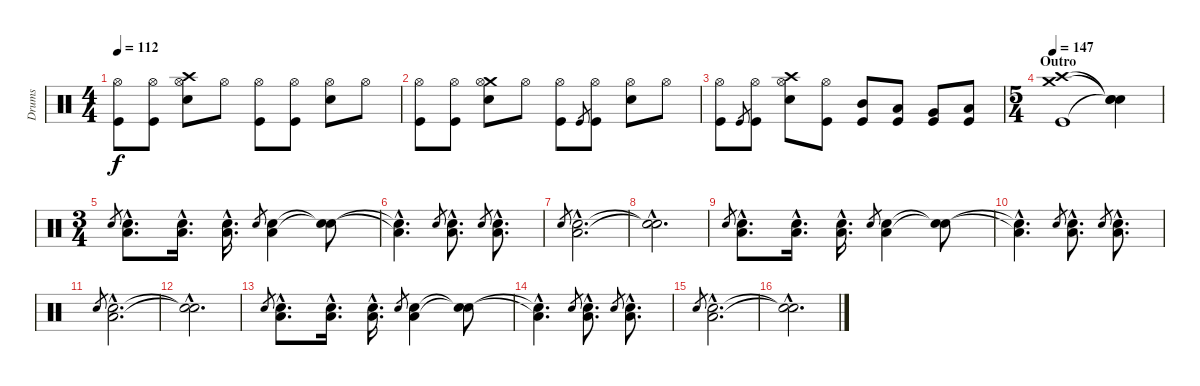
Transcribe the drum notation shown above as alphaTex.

\track ("Drums" "Drums") {instrument percussion}
\staff {score}
\articulation defaults
\ts (4 4)
\tempo 112
\clef neutral
\ks c
("Hi-Hat (open)" "Kick (hit)").8{dy f} ("Hi-Hat (open)" "Kick (hit)").8 ("Crash high (hit)" "Hi-Hat (open)" "Snare (hit) 2").8 "Hi-Hat (open)".8 ("Hi-Hat (open)" "Kick (hit)").8 ("Hi-Hat (open)" "Kick (hit)").8 ("Hi-Hat (open)" "Snare (hit) 2").8 "Hi-Hat (open)".8 |
("Hi-Hat (open)" "Kick (hit)").8 ("Hi-Hat (open)" "Kick (hit)").8 ("Crash medium (hit)" "Hi-Hat (open)" "Snare (hit) 2").8 "Hi-Hat (open)".8 ("Hi-Hat (open)" "Kick (hit)").8 "Kick (hit)".8{gr} ("Hi-Hat (open)" "Kick (hit)").8 ("Hi-Hat (open)" "Snare (hit) 2").8 "Hi-Hat (open)".8 |
("Hi-Hat (open)" "Kick (hit)").8 "Kick (hit)".8{gr} ("Hi-Hat (open)" "Kick (hit)").8 ("Crash high (hit)" "Hi-Hat (open)" "Snare (hit) 2").8 ("Hi-Hat (open)" "Kick (hit)").8 ("Mid Tom (hit)" "Kick (hit)").8 ("Low Tom (hit)" "Kick (hit)").8 ("Very Low Tom (hit)" "Kick (hit)").8 ("Low Floor Tom (hit)" "Kick (hit)").8 |
\ts (5 4)
\section ("" "Outro")
\tempo 147
("Crash high (hit)" "Crash medium (hit)" "Kick (hit)").1 ("Snare (hit)"{t} "Snare (hit)"{t} "Snare (hit)"{t}).4 |
\ts (3 4)
"Snare (hit) 2".8{gr} ("Snare (hit) 2"{hac} "Low Floor Tom (hit)"{hac}).8{d volume 16} ("Snare (hit) 2"{hac} "Low Floor Tom (hit)"{hac}).16{d} ("Snare (hit) 2"{hac} "Low Floor Tom (hit)"{hac}).16{d} "Snare (hit) 2".8{gr} ("Snare (hit) 2" "Low Floor Tom (hit)").4 ("Snare (hit)"{t} "Snare (hit)"{t}).8 |
("Snare (hit) 2"{hac t} "Low Floor Tom (hit)"{hac t}).4{d} "Snare (hit) 2".8{gr} ("Snare (hit) 2"{hac} "Low Floor Tom (hit)"{hac}).8{d} "Snare (hit) 2".8{gr} ("Snare (hit) 2"{hac} "Low Floor Tom (hit)"{hac}).8{d} |
"Snare (hit) 2".8{gr} ("Snare (hit) 2"{hac} "Low Floor Tom (hit)"{hac}).2{d} |
("Snare (hit)"{hac t} "Snare (hit)"{hac t}).2{d} |
"Snare (hit) 2".8{gr} ("Snare (hit) 2"{hac} "Low Floor Tom (hit)"{hac}).8{d} ("Snare (hit) 2"{hac} "Low Floor Tom (hit)"{hac}).16{d} ("Snare (hit) 2"{hac} "Low Floor Tom (hit)"{hac}).16{d} "Snare (hit) 2".8{gr} ("Snare (hit) 2" "Low Floor Tom (hit)").4 ("Snare (hit)"{t} "Snare (hit)"{t}).8 |
("Snare (hit) 2"{hac t} "Low Floor Tom (hit)"{hac t}).4{d} "Snare (hit) 2".8{gr} ("Snare (hit) 2"{hac} "Low Floor Tom (hit)"{hac}).8{d} "Snare (hit) 2".8{gr} ("Snare (hit) 2"{hac} "Low Floor Tom (hit)"{hac}).8{d} |
"Snare (hit) 2".8{gr} ("Snare (hit) 2"{hac} "Low Floor Tom (hit)"{hac}).2{d} |
("Snare (hit)"{hac t} "Snare (hit)"{hac t}).2{d} |
"Snare (hit) 2".8{gr} ("Snare (hit) 2"{hac} "Low Floor Tom (hit)"{hac}).8{d volume 16} ("Snare (hit) 2"{hac} "Low Floor Tom (hit)"{hac}).16{d} ("Snare (hit) 2"{hac} "Low Floor Tom (hit)"{hac}).16{d} "Snare (hit) 2".8{gr} ("Snare (hit) 2" "Low Floor Tom (hit)").4 ("Snare (hit)"{t} "Snare (hit)"{t}).8 |
("Snare (hit) 2"{hac t} "Low Floor Tom (hit)"{hac t}).4{d} "Snare (hit) 2".8{gr} ("Snare (hit) 2"{hac} "Low Floor Tom (hit)"{hac}).8{d} "Snare (hit) 2".8{gr} ("Snare (hit) 2"{hac} "Low Floor Tom (hit)"{hac}).8{d} |
"Snare (hit) 2".8{gr} ("Snare (hit) 2"{hac} "Low Floor Tom (hit)"{hac}).2{d} |
("Snare (hit)"{hac t} "Snare (hit)"{hac t}).2{d}
